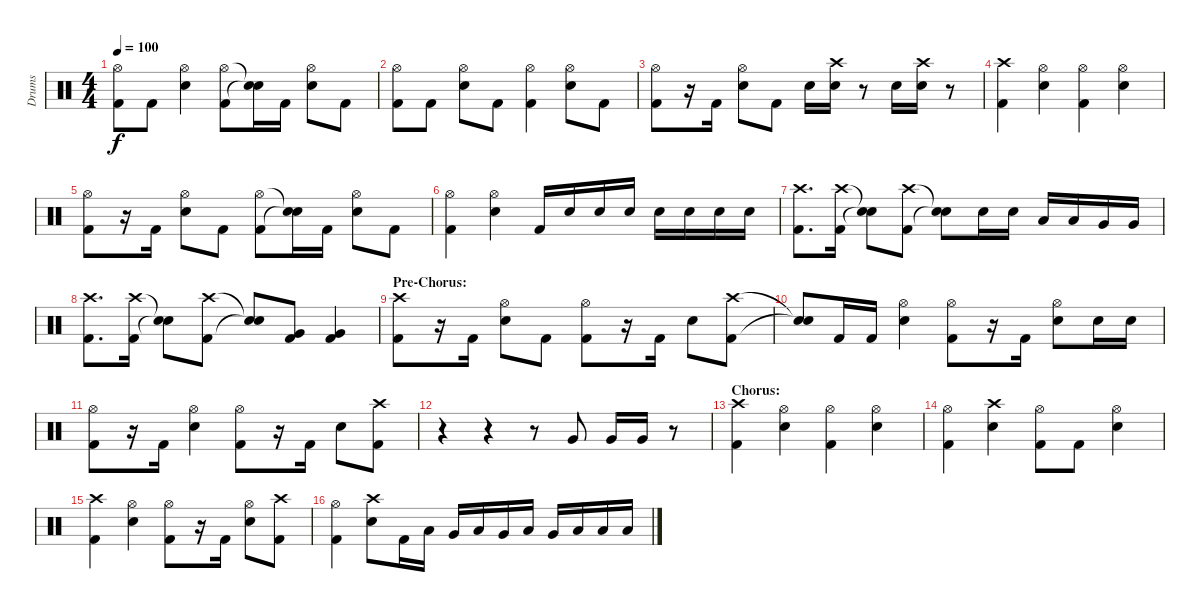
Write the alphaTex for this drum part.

\track ("Drums" "Drums") {instrument percussion}
\staff {score}
\articulation defaults
\ts (4 4)
\tempo 100
\clef neutral
\ks c
("Hi-Hat (open)" "Kick (hit) 2").8{dy f} "Kick (hit) 2".8 ("Hi-Hat (open)" "Electric Snare (hit)").4 ("Hi-Hat (open)" "Kick (hit) 2").8 ("Snare (hit)"{t} "Snare (hit)"{t}).16 "Kick (hit) 2".16 ("Hi-Hat (open)" "Electric Snare (hit)").8 "Kick (hit) 2".8 |
("Hi-Hat (open)" "Kick (hit) 2").8 "Kick (hit) 2".8 ("Hi-Hat (open)" "Electric Snare (hit)").8 "Kick (hit) 2".8 ("Hi-Hat (open)" "Kick (hit) 2").4 ("Hi-Hat (open)" "Electric Snare (hit)").8 "Kick (hit) 2".8 |
("Hi-Hat (open)" "Kick (hit) 2").8 r.16 "Kick (hit) 2".16 ("Hi-Hat (open)" "Electric Snare (hit)").8 "Kick (hit) 2".8 "Electric Snare (hit)".16 ("Crash high (hit)" "Electric Snare (hit)").16 r.8 "Electric Snare (hit)".16 ("Crash high (hit)" "Electric Snare (hit)").16 r.8 |
("Crash high (hit)" "Kick (hit) 2").4 ("Hi-Hat (open)" "Electric Snare (hit)").4 ("Hi-Hat (open)" "Kick (hit) 2").4 ("Hi-Hat (open)" "Electric Snare (hit)").4 |
("Hi-Hat (open)" "Kick (hit) 2").8 r.16 "Kick (hit) 2".16 ("Hi-Hat (open)" "Electric Snare (hit)").8 "Kick (hit) 2".8 ("Hi-Hat (open)" "Kick (hit) 2").8 ("Snare (hit)"{t} "Snare (hit)"{t}).16 "Kick (hit) 2".16 ("Hi-Hat (open)" "Electric Snare (hit)").8 "Kick (hit) 2".8 |
("Hi-Hat (open)" "Kick (hit) 2").4 ("Hi-Hat (open)" "Electric Snare (hit)").4 "Kick (hit) 2".16 "Electric Snare (hit)".16 "Electric Snare (hit)".16 "Electric Snare (hit)".16 "Electric Snare (hit)".16 "Electric Snare (hit)".16 "Electric Snare (hit)".16 "Electric Snare (hit)".16 |
("Crash high (hit)" "Kick (hit) 2").8{d} ("Crash high (hit)" "Kick (hit) 2").16 ("Snare (hit)"{t} "Snare (hit)"{t}).8 ("Crash high (hit)" "Kick (hit) 2").8 ("Snare (hit)"{t} "Snare (hit)"{t}).8 "Electric Snare (hit)".16 "Electric Snare (hit)".16 "Low Tom (hit)".16 "Low Tom (hit)".16 "Very Low Tom (hit)".16 "Very Low Tom (hit)".16 |
("Crash high (hit)" "Kick (hit) 2").8{d} ("Crash high (hit)" "Kick (hit) 2").16 ("Snare (hit)"{t} "Snare (hit)"{t}).8 ("Crash high (hit)" "Kick (hit) 2").8 ("Snare (hit)"{t} "Snare (hit)"{t}).8 ("Very Low Tom (hit)" "Kick (hit) 2").8 ("Very Low Tom (hit)" "Kick (hit) 2").4 |
\section ("" "Pre-Chorus:")
("Crash high (hit)" "Kick (hit) 2").8 r.16 "Kick (hit) 2".16 ("Hi-Hat (open)" "Electric Snare (hit)").8 "Kick (hit) 2".8 ("Hi-Hat (open)" "Kick (hit) 2").8 r.16 "Kick (hit) 2".16 "Electric Snare (hit)".8 ("Crash high (hit)" "Kick (hit) 2").8 |
("Snare (hit)"{t} "Snare (hit)"{t}).8 "Kick (hit) 2".16 "Kick (hit) 2".16 ("Hi-Hat (open)" "Electric Snare (hit)").4 ("Hi-Hat (open)" "Kick (hit) 2").8 r.16 "Kick (hit) 2".16 ("Hi-Hat (open)" "Electric Snare (hit)").8 "Electric Snare (hit)".16 "Electric Snare (hit)".16 |
("Hi-Hat (open)" "Kick (hit) 2").8 r.16 "Kick (hit) 2".16 ("Hi-Hat (open)" "Electric Snare (hit)").4 ("Hi-Hat (open)" "Kick (hit) 2").8 r.16 "Kick (hit) 2".16 "Electric Snare (hit)".8 ("Crash high (hit)" "Kick (hit) 2").8 |
r.4 r.4 r.8 "Very Low Tom (hit)".8 "Very Low Tom (hit)".16 "Very Low Tom (hit)".16 r.8 |
\section ("" "Chorus:")
("Crash high (hit)" "Kick (hit) 2").4 ("Hi-Hat (open)" "Electric Snare (hit)").4 ("Hi-Hat (open)" "Kick (hit) 2").4 ("Hi-Hat (open)" "Electric Snare (hit)").4 |
("Hi-Hat (open)" "Kick (hit) 2").4 ("Crash high (hit)" "Electric Snare (hit)").4 ("Hi-Hat (open)" "Kick (hit) 2").8 "Kick (hit) 2".8 ("Hi-Hat (open)" "Electric Snare (hit)").4 |
("Crash high (hit)" "Kick (hit) 2").4 ("Hi-Hat (open)" "Electric Snare (hit)").4 ("Hi-Hat (open)" "Kick (hit) 2").8 r.16 "Kick (hit) 2".16 ("Hi-Hat (open)" "Electric Snare (hit)").8 ("Crash high (hit)" "Kick (hit) 2").8 |
("Hi-Hat (open)" "Kick (hit) 2").4 ("Crash high (hit)" "Electric Snare (hit)").8 "Kick (hit) 2".16 "Low Tom (hit)".16 "Very Low Tom (hit)".16 "Low Tom (hit)".16 "Very Low Tom (hit)".16 "Low Tom (hit)".16 "Very Low Tom (hit)".16 "Low Tom (hit)".16 "Low Tom (hit)".16 "Low Tom (hit)".16
